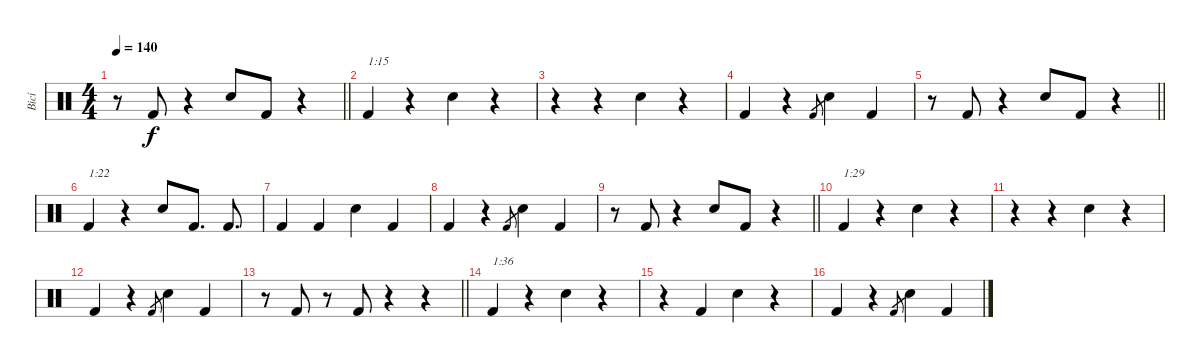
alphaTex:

\track ("Bicí" "Bicí") {instrument percussion}
\staff {score}
\articulation defaults
\ts (4 4)
\tempo 140
\clef neutral
\barLineRight lightlight
\ks c
r.8{dy f} "Kick (hit) 2".8 r.4 "Snare (hit) 2".8 "Kick (hit) 2".8 r.4 |
"Kick (hit) 2".4{txt "1:15"} r.4 "Snare (hit) 2".4 r.4 |
r.4 r.4 "Snare (hit) 2".4 r.4 |
"Kick (hit) 2".4 r.4 "Kick (hit) 2".8{gr} "Snare (hit) 2".4 "Kick (hit) 2".4 |
\barLineRight lightlight
r.8 "Kick (hit) 2".8 r.4 "Snare (hit) 2".8 "Kick (hit) 2".8 r.4 |
"Kick (hit) 2".4{txt "1:22"} r.4 "Snare (hit) 2".8 "Kick (hit) 2".8{d} "Kick (hit) 2".8{d} |
"Kick (hit) 2".4 "Kick (hit) 2".4 "Snare (hit) 2".4 "Kick (hit) 2".4 |
"Kick (hit) 2".4 r.4 "Kick (hit) 2".8{gr} "Snare (hit) 2".4 "Kick (hit) 2".4 |
\barLineRight lightlight
r.8 "Kick (hit) 2".8 r.4 "Snare (hit) 2".8 "Kick (hit) 2".8 r.4 |
"Kick (hit) 2".4{txt "1:29"} r.4 "Snare (hit) 2".4 r.4 |
r.4 r.4 "Snare (hit) 2".4 r.4 |
"Kick (hit) 2".4 r.4 "Kick (hit) 2".8{gr} "Snare (hit) 2".4 "Kick (hit) 2".4 |
\barLineRight lightlight
r.8 "Kick (hit) 2".8 r.8 "Kick (hit) 2".8 r.4 r.4 |
"Kick (hit) 2".4{txt "1:36"} r.4 "Snare (hit) 2".4 r.4 |
r.4 "Kick (hit) 2".4 "Snare (hit) 2".4 r.4 |
"Kick (hit) 2".4 r.4 "Kick (hit) 2".8{gr} "Snare (hit) 2".4 "Kick (hit) 2".4
